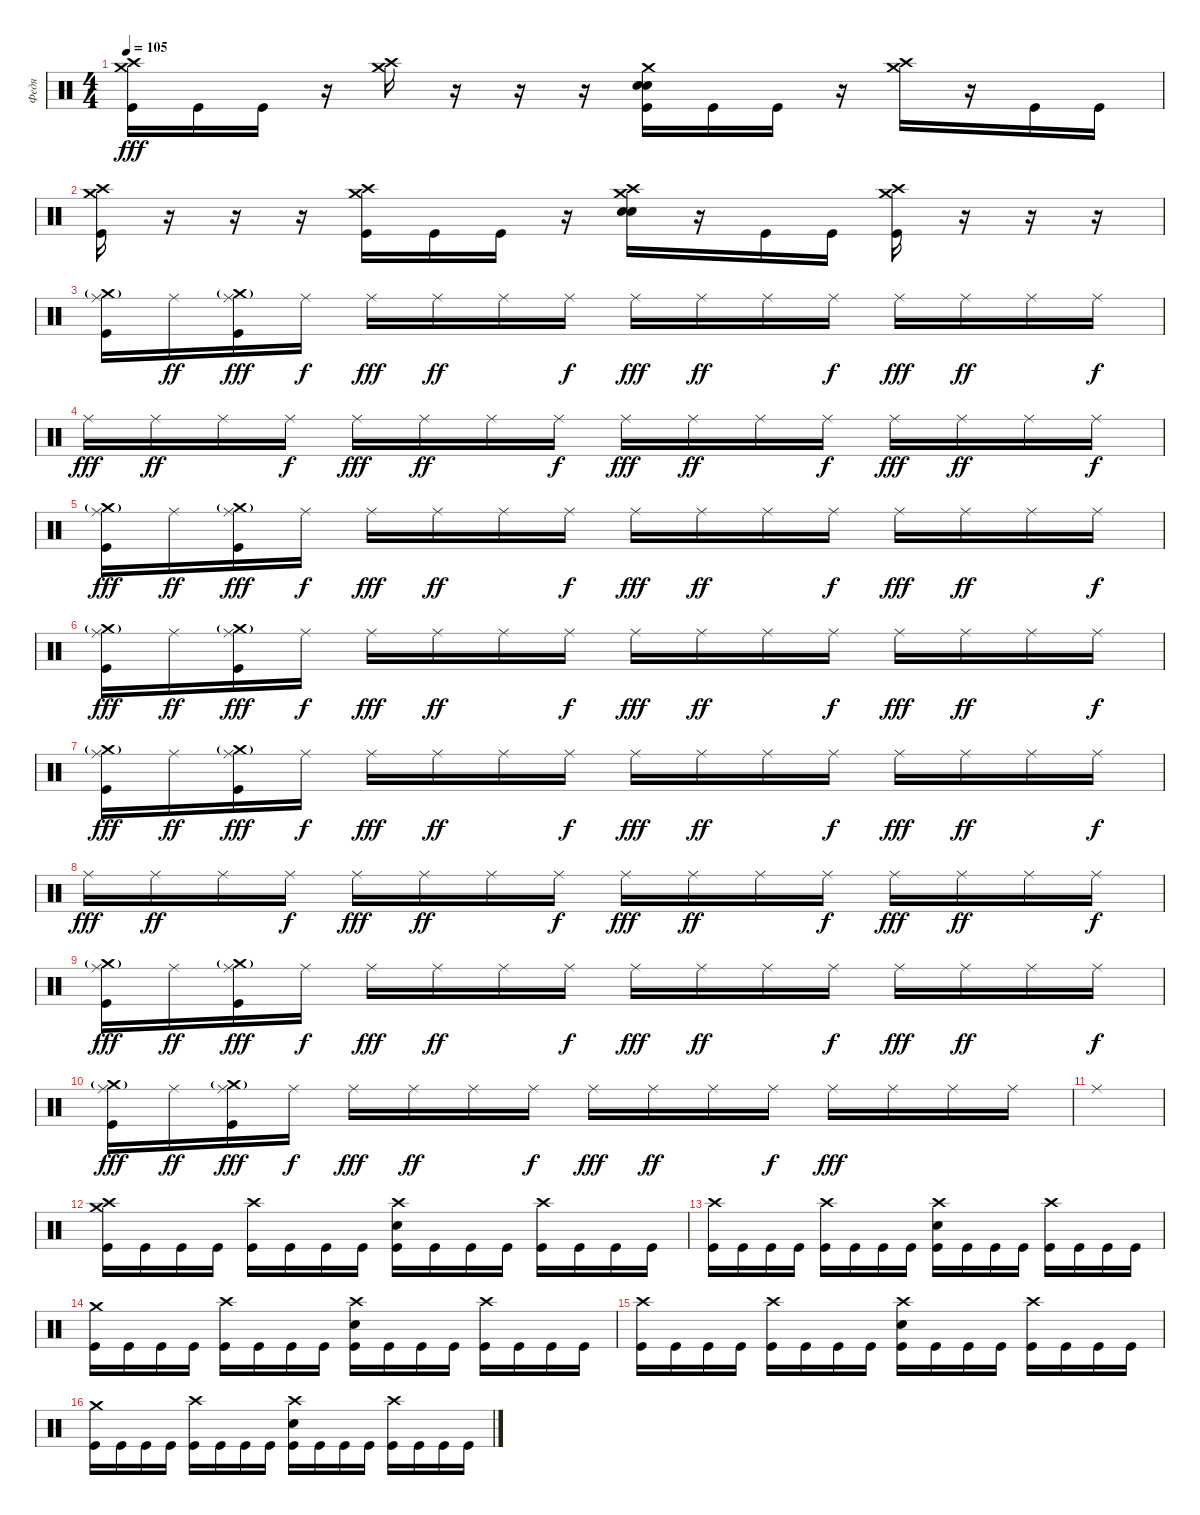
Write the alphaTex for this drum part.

\track ("Федя" "Федя") {instrument percussion}
\staff {score}
\articulation defaults
\ts (4 4)
\tempo 105
\clef neutral
\ks c
("Crash medium (hit)" "Crash high (hit)" "Kick (hit)").16{dy fff} "Kick (hit)".16 "Kick (hit)".16 r.16 ("Crash medium (hit)" "Crash high (hit)").16 r.16 r.16 r.16 ("Crash medium (hit)" "Electric Snare (hit)" "Snare (hit) 2" "Kick (hit)").16 "Kick (hit)".16 "Kick (hit)".16 r.16 ("Crash medium (hit)" "Crash high (hit)").16 r.16 "Kick (hit)".16 "Kick (hit)".16 |
("Crash medium (hit)" "Crash high (hit)" "Kick (hit)").16 r.16 r.16 r.16 ("Crash medium (hit)" "Crash high (hit)" "Kick (hit)").16 "Kick (hit)".16 "Kick (hit)".16 r.16 ("Crash medium (hit)" "Crash high (hit)" "Electric Snare (hit)" "Snare (hit) 2").16 r.16 "Kick (hit)".16 "Kick (hit)".16 ("Crash medium (hit)" "Crash high (hit)" "Kick (hit)").16 r.16 r.16 r.16 |
("Crash medium (hit)"{g} "Ride (middle)" "Kick (hit)").16 "Ride (middle)".16{dy ff} ("Crash medium (hit)"{g} "Ride (middle)" "Kick (hit)").16{dy fff} "Ride (middle)".16{dy f} "Ride (middle)".16{dy fff} "Ride (middle)".16{dy ff} "Ride (middle)".16 "Ride (middle)".16{dy f} "Ride (middle)".16{dy fff} "Ride (middle)".16{dy ff} "Ride (middle)".16 "Ride (middle)".16{dy f} "Ride (middle)".16{dy fff} "Ride (middle)".16{dy ff} "Ride (middle)".16 "Ride (middle)".16{dy f} |
"Ride (middle)".16{dy fff} "Ride (middle)".16{dy ff} "Ride (middle)".16 "Ride (middle)".16{dy f} "Ride (middle)".16{dy fff} "Ride (middle)".16{dy ff} "Ride (middle)".16 "Ride (middle)".16{dy f} "Ride (middle)".16{dy fff} "Ride (middle)".16{dy ff} "Ride (middle)".16 "Ride (middle)".16{dy f} "Ride (middle)".16{dy fff} "Ride (middle)".16{dy ff} "Ride (middle)".16 "Ride (middle)".16{dy f} |
("Crash medium (hit)"{g} "Ride (middle)" "Kick (hit)").16{dy fff} "Ride (middle)".16{dy ff} ("Crash medium (hit)"{g} "Ride (middle)" "Kick (hit)").16{dy fff} "Ride (middle)".16{dy f} "Ride (middle)".16{dy fff} "Ride (middle)".16{dy ff} "Ride (middle)".16 "Ride (middle)".16{dy f} "Ride (middle)".16{dy fff} "Ride (middle)".16{dy ff} "Ride (middle)".16 "Ride (middle)".16{dy f} "Ride (middle)".16{dy fff} "Ride (middle)".16{dy ff} "Ride (middle)".16 "Ride (middle)".16{dy f} |
("Crash medium (hit)"{g} "Ride (middle)" "Kick (hit)").16{dy fff} "Ride (middle)".16{dy ff} ("Crash medium (hit)"{g} "Ride (middle)" "Kick (hit)").16{dy fff} "Ride (middle)".16{dy f} "Ride (middle)".16{dy fff} "Ride (middle)".16{dy ff} "Ride (middle)".16 "Ride (middle)".16{dy f} "Ride (middle)".16{dy fff} "Ride (middle)".16{dy ff} "Ride (middle)".16 "Ride (middle)".16{dy f} "Ride (middle)".16{dy fff} "Ride (middle)".16{dy ff} "Ride (middle)".16 "Ride (middle)".16{dy f} |
("Crash medium (hit)"{g} "Ride (middle)" "Kick (hit)").16{dy fff} "Ride (middle)".16{dy ff} ("Crash medium (hit)"{g} "Ride (middle)" "Kick (hit)").16{dy fff} "Ride (middle)".16{dy f} "Ride (middle)".16{dy fff} "Ride (middle)".16{dy ff} "Ride (middle)".16 "Ride (middle)".16{dy f} "Ride (middle)".16{dy fff} "Ride (middle)".16{dy ff} "Ride (middle)".16 "Ride (middle)".16{dy f} "Ride (middle)".16{dy fff} "Ride (middle)".16{dy ff} "Ride (middle)".16 "Ride (middle)".16{dy f} |
"Ride (middle)".16{dy fff} "Ride (middle)".16{dy ff} "Ride (middle)".16 "Ride (middle)".16{dy f} "Ride (middle)".16{dy fff} "Ride (middle)".16{dy ff} "Ride (middle)".16 "Ride (middle)".16{dy f} "Ride (middle)".16{dy fff} "Ride (middle)".16{dy ff} "Ride (middle)".16 "Ride (middle)".16{dy f} "Ride (middle)".16{dy fff} "Ride (middle)".16{dy ff} "Ride (middle)".16 "Ride (middle)".16{dy f} |
("Crash medium (hit)"{g} "Ride (middle)" "Kick (hit)").16{dy fff} "Ride (middle)".16{dy ff} ("Crash medium (hit)"{g} "Ride (middle)" "Kick (hit)").16{dy fff} "Ride (middle)".16{dy f} "Ride (middle)".16{dy fff} "Ride (middle)".16{dy ff} "Ride (middle)".16 "Ride (middle)".16{dy f} "Ride (middle)".16{dy fff} "Ride (middle)".16{dy ff} "Ride (middle)".16 "Ride (middle)".16{dy f} "Ride (middle)".16{dy fff} "Ride (middle)".16{dy ff} "Ride (middle)".16 "Ride (middle)".16{dy f} |
("Crash medium (hit)"{g} "Ride (middle)" "Kick (hit)").16{dy fff} "Ride (middle)".16{dy ff} ("Crash medium (hit)"{g} "Ride (middle)" "Kick (hit)").16{dy fff} "Ride (middle)".16{dy f} "Ride (middle)".16{dy fff} "Ride (middle)".16{dy ff} "Ride (middle)".16 "Ride (middle)".16{dy f} "Ride (middle)".16{dy fff} "Ride (middle)".16{dy ff} "Ride (middle)".16 "Ride (middle)".16{dy f} "Ride (middle)".16{dy fff} "Ride (middle)".16 "Ride (middle)".16 "Ride (middle)".16 |
"Ride (middle)".1 |
("Crash medium (hit)" "Crash high (hit)" "Kick (hit)").16 "Kick (hit)".16 "Kick (hit)".16 "Kick (hit)".16 ("Crash high (hit)" "Kick (hit)").16 "Kick (hit)".16 "Kick (hit)".16 "Kick (hit)".16 ("Crash high (hit)" "Snare (hit) 2" "Kick (hit)").16 "Kick (hit)".16 "Kick (hit)".16 "Kick (hit)".16 ("Crash high (hit)" "Kick (hit)").16 "Kick (hit)".16 "Kick (hit)".16 "Kick (hit)".16 |
("Crash high (hit)" "Kick (hit)").16 "Kick (hit)".16 "Kick (hit)".16 "Kick (hit)".16 ("Crash high (hit)" "Kick (hit)").16 "Kick (hit)".16 "Kick (hit)".16 "Kick (hit)".16 ("Crash high (hit)" "Snare (hit) 2" "Kick (hit)").16 "Kick (hit)".16 "Kick (hit)".16 "Kick (hit)".16 ("Crash high (hit)" "Kick (hit)").16 "Kick (hit)".16 "Kick (hit)".16 "Kick (hit)".16 |
("Crash medium (hit)" "Kick (hit)").16 "Kick (hit)".16 "Kick (hit)".16 "Kick (hit)".16 ("Crash high (hit)" "Kick (hit)").16 "Kick (hit)".16 "Kick (hit)".16 "Kick (hit)".16 ("Crash high (hit)" "Snare (hit) 2" "Kick (hit)").16 "Kick (hit)".16 "Kick (hit)".16 "Kick (hit)".16 ("Crash high (hit)" "Kick (hit)").16 "Kick (hit)".16 "Kick (hit)".16 "Kick (hit)".16 |
("Crash high (hit)" "Kick (hit)").16 "Kick (hit)".16 "Kick (hit)".16 "Kick (hit)".16 ("Crash high (hit)" "Kick (hit)").16 "Kick (hit)".16 "Kick (hit)".16 "Kick (hit)".16 ("Crash high (hit)" "Snare (hit) 2" "Kick (hit)").16 "Kick (hit)".16 "Kick (hit)".16 "Kick (hit)".16 ("Crash high (hit)" "Kick (hit)").16 "Kick (hit)".16 "Kick (hit)".16 "Kick (hit)".16 |
("Crash medium (hit)" "Kick (hit)").16 "Kick (hit)".16 "Kick (hit)".16 "Kick (hit)".16 ("Crash high (hit)" "Kick (hit)").16 "Kick (hit)".16 "Kick (hit)".16 "Kick (hit)".16 ("Crash high (hit)" "Snare (hit) 2" "Kick (hit)").16 "Kick (hit)".16 "Kick (hit)".16 "Kick (hit)".16 ("Crash high (hit)" "Kick (hit)").16 "Kick (hit)".16 "Kick (hit)".16 "Kick (hit)".16
